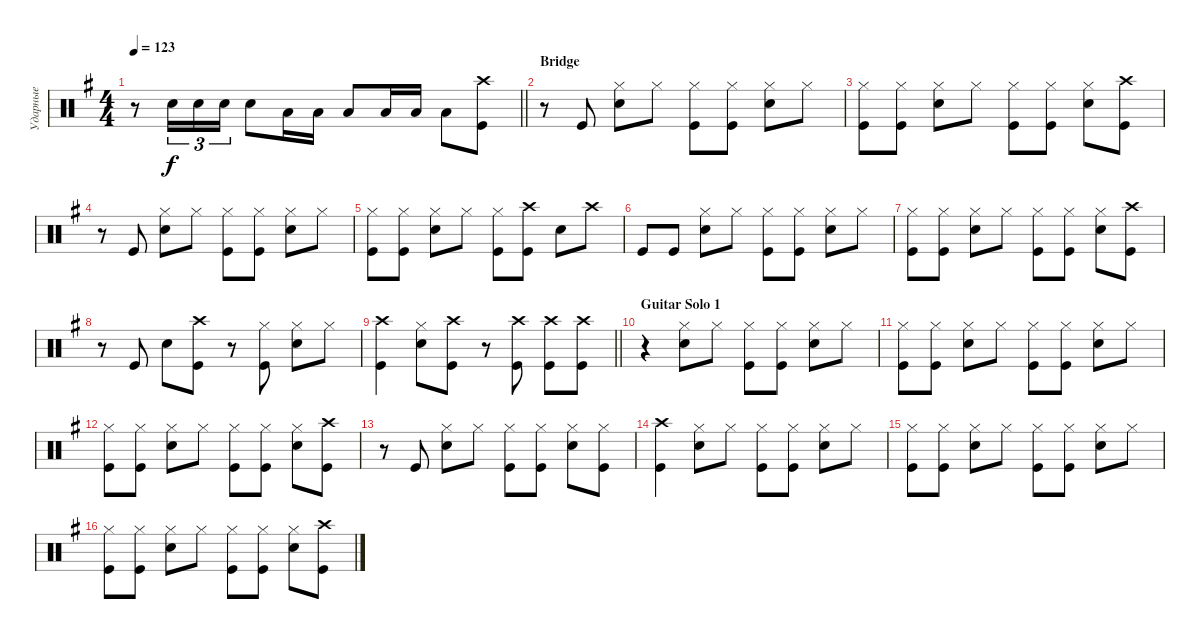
\track ("Ударные" "Ударные") {instrument percussion}
\staff {score}
\articulation defaults
\ts (4 4)
\tempo 123
\clef neutral
\barLineRight lightlight
\ks eminor
r.8{dy f} "Snare (hit) 2".16{tu (3 2)} "Snare (hit) 2".16{tu (3 2)} "Snare (hit) 2".16{tu (3 2)} "Snare (hit) 2".8 "Low Tom (hit)".16 "Low Tom (hit)".16 "Low Tom (hit)".8 "Low Tom (hit)".16 "Low Tom (hit)".16 "Low Tom (hit)".8 ("Kick (hit)" "Crash high (hit)").8 |
\section ("" "Bridge")
r.8 "Kick (hit)".8 ("Snare (hit) 2" "Hi-Hat (closed)").8 "Hi-Hat (closed)".8 ("Hi-Hat (closed)" "Kick (hit)").8 ("Hi-Hat (closed)" "Kick (hit)").8 ("Hi-Hat (closed)" "Snare (hit) 2").8 "Hi-Hat (closed)".8 |
("Hi-Hat (closed)" "Kick (hit)").8 ("Hi-Hat (closed)" "Kick (hit)").8 ("Snare (hit) 2" "Hi-Hat (closed)").8 "Hi-Hat (closed)".8 ("Hi-Hat (closed)" "Kick (hit)").8 ("Hi-Hat (closed)" "Kick (hit)").8 ("Hi-Hat (closed)" "Snare (hit) 2").8 ("Kick (hit)" "Crash high (hit)").8 |
r.8 "Kick (hit)".8 ("Snare (hit) 2" "Hi-Hat (closed)").8 "Hi-Hat (closed)".8 ("Hi-Hat (closed)" "Kick (hit)").8 ("Hi-Hat (closed)" "Kick (hit)").8 ("Hi-Hat (closed)" "Snare (hit) 2").8 "Hi-Hat (closed)".8 |
("Hi-Hat (closed)" "Kick (hit)").8 ("Hi-Hat (closed)" "Kick (hit)").8 ("Snare (hit) 2" "Hi-Hat (closed)").8 "Hi-Hat (closed)".8 ("Hi-Hat (closed)" "Kick (hit)").8 ("Crash high (hit)" "Kick (hit)").8 "Snare (hit) 2".8 "Crash high (hit)".8 |
"Kick (hit)".8 "Kick (hit)".8 ("Snare (hit) 2" "Hi-Hat (closed)").8 "Hi-Hat (closed)".8 ("Hi-Hat (closed)" "Kick (hit)").8 ("Hi-Hat (closed)" "Kick (hit)").8 ("Hi-Hat (closed)" "Snare (hit) 2").8 "Hi-Hat (closed)".8 |
("Hi-Hat (closed)" "Kick (hit)").8 ("Hi-Hat (closed)" "Kick (hit)").8 ("Snare (hit) 2" "Hi-Hat (closed)").8 "Hi-Hat (closed)".8 ("Hi-Hat (closed)" "Kick (hit)").8 ("Hi-Hat (closed)" "Kick (hit)").8 ("Hi-Hat (closed)" "Snare (hit) 2").8 ("Kick (hit)" "Crash high (hit)").8 |
r.8 "Kick (hit)".8 "Snare (hit) 2".8 ("Kick (hit)" "Crash high (hit)").8 r.8 ("Kick (hit)" "Hi-Hat (closed)").8 ("Snare (hit) 2" "Hi-Hat (closed)").8 "Hi-Hat (closed)".8 |
\barLineRight lightlight
("Kick (hit)" "Crash high (hit)").4 ("Snare (hit) 2" "Hi-Hat (closed)").8 ("Kick (hit)" "Crash high (hit)").8 r.8 ("Kick (hit)" "Crash high (hit)").8 ("Kick (hit)" "Crash high (hit)").8 ("Kick (hit)" "Crash high (hit)").8 |
\section ("" "Guitar Solo 1")
r.4 ("Snare (hit) 2" "Hi-Hat (closed)").8 "Hi-Hat (closed)".8 ("Hi-Hat (closed)" "Kick (hit)").8 ("Hi-Hat (closed)" "Kick (hit)").8 ("Hi-Hat (closed)" "Snare (hit) 2").8 "Hi-Hat (closed)".8 |
("Hi-Hat (closed)" "Kick (hit)").8 ("Hi-Hat (closed)" "Kick (hit)").8 ("Snare (hit) 2" "Hi-Hat (closed)").8 "Hi-Hat (closed)".8 ("Hi-Hat (closed)" "Kick (hit)").8 ("Hi-Hat (closed)" "Kick (hit)").8 ("Hi-Hat (closed)" "Snare (hit) 2").8 "Hi-Hat (closed)".8 |
("Hi-Hat (closed)" "Kick (hit)").8 ("Hi-Hat (closed)" "Kick (hit)").8 ("Snare (hit) 2" "Hi-Hat (closed)").8 "Hi-Hat (closed)".8 ("Hi-Hat (closed)" "Kick (hit)").8 ("Hi-Hat (closed)" "Kick (hit)").8 ("Hi-Hat (closed)" "Snare (hit) 2").8 ("Crash high (hit)" "Kick (hit)").8 |
r.8 "Kick (hit)".8 ("Snare (hit) 2" "Hi-Hat (closed)").8 "Hi-Hat (closed)".8 ("Hi-Hat (closed)" "Kick (hit)").8 ("Hi-Hat (closed)" "Kick (hit)").8 ("Hi-Hat (closed)" "Snare (hit) 2").8 ("Hi-Hat (closed)" "Kick (hit)").8 |
("Kick (hit)" "Crash high (hit)").4 ("Snare (hit) 2" "Hi-Hat (closed)").8 "Hi-Hat (closed)".8 ("Hi-Hat (closed)" "Kick (hit)").8 ("Hi-Hat (closed)" "Kick (hit)").8 ("Hi-Hat (closed)" "Snare (hit) 2").8 "Hi-Hat (closed)".8 |
("Hi-Hat (closed)" "Kick (hit)").8 ("Hi-Hat (closed)" "Kick (hit)").8 ("Snare (hit) 2" "Hi-Hat (closed)").8 "Hi-Hat (closed)".8 ("Hi-Hat (closed)" "Kick (hit)").8 ("Hi-Hat (closed)" "Kick (hit)").8 ("Hi-Hat (closed)" "Snare (hit) 2").8 "Hi-Hat (closed)".8 |
("Hi-Hat (closed)" "Kick (hit)").8 ("Hi-Hat (closed)" "Kick (hit)").8 ("Snare (hit) 2" "Hi-Hat (closed)").8 "Hi-Hat (closed)".8 ("Hi-Hat (closed)" "Kick (hit)").8 ("Hi-Hat (closed)" "Kick (hit)").8 ("Hi-Hat (closed)" "Snare (hit) 2").8 ("Crash high (hit)" "Kick (hit)").8
